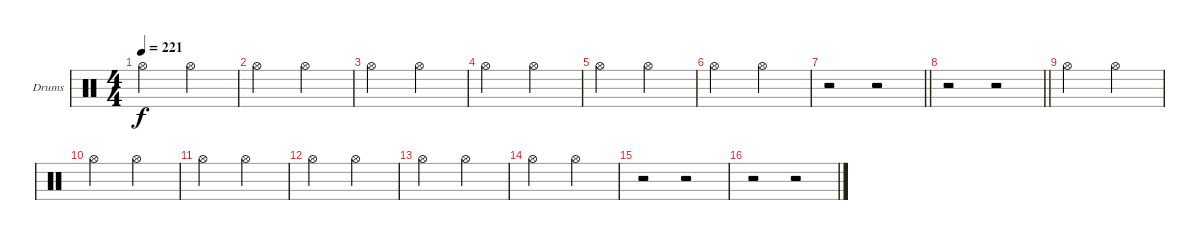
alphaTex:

\bracketExtendMode groupsimilarinstruments
\firstSystemTrackNameOrientation horizontal
\otherSystemsTrackNameOrientation horizontal
\track ("Drumkit" "Drums") {instrument percussion}
\staff {score}
\articulation defaults
\ts (4 4)
\tempo 221
\clef neutral
\ks c "Hi-Hat (open)".2{dy f} "Hi-Hat (open)".2
|
"Hi-Hat (open)".2 "Hi-Hat (open)".2 |
"Hi-Hat (open)".2 "Hi-Hat (open)".2 |
"Hi-Hat (open)".2 "Hi-Hat (open)".2 |
"Hi-Hat (open)".2 "Hi-Hat (open)".2 |
"Hi-Hat (open)".2 "Hi-Hat (open)".2 |
\barLineRight lightlight
r.2 r.2 |
\barLineRight lightlight
r.2 r.2 |
"Hi-Hat (open)".2 "Hi-Hat (open)".2 |
"Hi-Hat (open)".2 "Hi-Hat (open)".2 |
"Hi-Hat (open)".2 "Hi-Hat (open)".2 |
"Hi-Hat (open)".2 "Hi-Hat (open)".2 |
"Hi-Hat (open)".2 "Hi-Hat (open)".2 |
"Hi-Hat (open)".2 "Hi-Hat (open)".2 |
r.2 r.2 |
r.2 r.2
